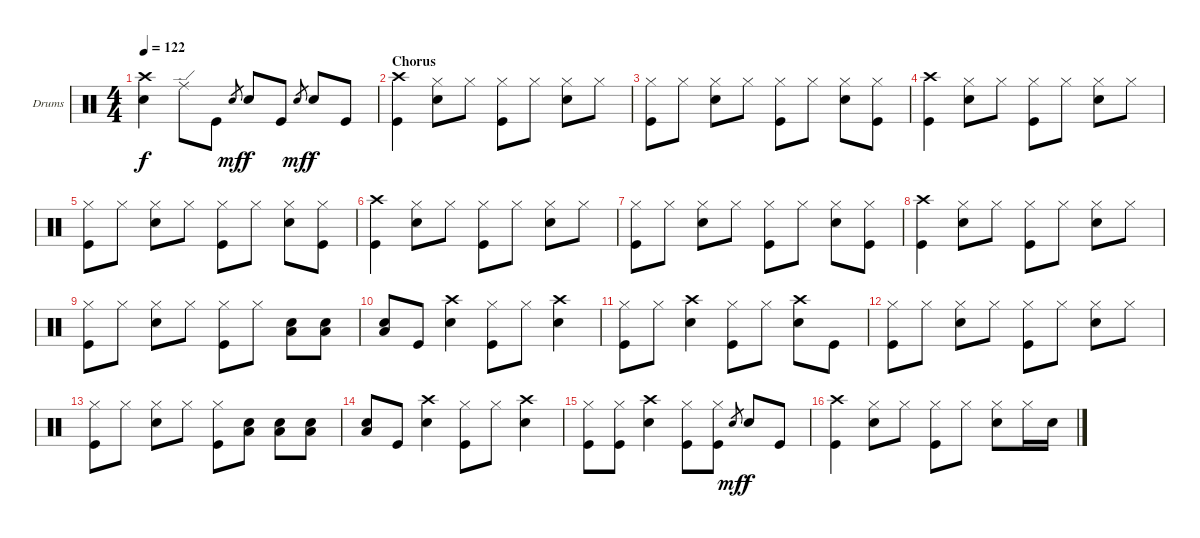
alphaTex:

\bracketExtendMode groupsimilarinstruments
\firstSystemTrackNameOrientation horizontal
\otherSystemsTrackNameOrientation horizontal
\track ("Drumkit" "Drums") {instrument percussion}
\staff {score}
\articulation defaults
\ts (4 4)
\tempo 122
\clef neutral
\ks c
("Snare (hit) 2" "Crash high (hit)").4{dy f} "Ride (edge)".8 "Kick (hit)".8 "Snare (hit) 2".8{gr dy mf} "Snare (hit) 2".8{dy f} "Kick (hit)".8 "Snare (hit) 2".8{gr dy mf} "Snare (hit) 2".8{dy f} "Kick (hit)".8 |
\section ("" "Chorus")
("Kick (hit)" "Crash high (hit)").4 ("Snare (hit) 2" "Hi-Hat (closed)").8 "Hi-Hat (closed)".8 ("Kick (hit)" "Hi-Hat (closed)").8 "Hi-Hat (closed)".8 ("Snare (hit) 2" "Hi-Hat (closed)").8 "Hi-Hat (closed)".8 |
("Kick (hit)" "Hi-Hat (closed)").8 "Hi-Hat (closed)".8 ("Snare (hit) 2" "Hi-Hat (closed)").8 "Hi-Hat (closed)".8 ("Kick (hit)" "Hi-Hat (closed)").8 "Hi-Hat (closed)".8 ("Snare (hit) 2" "Hi-Hat (closed)").8 ("Kick (hit)" "Hi-Hat (closed)").8 |
("Kick (hit)" "Crash high (hit)").4 ("Snare (hit) 2" "Hi-Hat (closed)").8 "Hi-Hat (closed)".8 ("Kick (hit)" "Hi-Hat (closed)").8 "Hi-Hat (closed)".8 ("Snare (hit) 2" "Hi-Hat (closed)").8 "Hi-Hat (closed)".8 |
("Kick (hit)" "Hi-Hat (closed)").8 "Hi-Hat (closed)".8 ("Snare (hit) 2" "Hi-Hat (closed)").8 "Hi-Hat (closed)".8 ("Kick (hit)" "Hi-Hat (closed)").8 "Hi-Hat (closed)".8 ("Snare (hit) 2" "Hi-Hat (closed)").8 ("Kick (hit)" "Hi-Hat (closed)").8 |
("Kick (hit)" "Crash high (hit)").4 ("Snare (hit) 2" "Hi-Hat (closed)").8 "Hi-Hat (closed)".8 ("Kick (hit)" "Hi-Hat (closed)").8 "Hi-Hat (closed)".8 ("Snare (hit) 2" "Hi-Hat (closed)").8 "Hi-Hat (closed)".8 |
("Kick (hit)" "Hi-Hat (closed)").8 "Hi-Hat (closed)".8 ("Snare (hit) 2" "Hi-Hat (closed)").8 "Hi-Hat (closed)".8 ("Kick (hit)" "Hi-Hat (closed)").8 "Hi-Hat (closed)".8 ("Snare (hit) 2" "Hi-Hat (closed)").8 ("Kick (hit)" "Hi-Hat (closed)").8 |
("Kick (hit)" "Crash high (hit)").4 ("Snare (hit) 2" "Hi-Hat (closed)").8 "Hi-Hat (closed)".8 ("Kick (hit)" "Hi-Hat (closed)").8 "Hi-Hat (closed)".8 ("Snare (hit) 2" "Hi-Hat (closed)").8 "Hi-Hat (closed)".8 |
("Kick (hit)" "Hi-Hat (closed)").8 "Hi-Hat (closed)".8 ("Snare (hit) 2" "Hi-Hat (closed)").8 "Hi-Hat (closed)".8 ("Kick (hit)" "Hi-Hat (closed)").8 "Hi-Hat (closed)".8 ("Snare (hit) 2" "Low Tom (hit)").8 ("Snare (hit) 2" "Low Tom (hit)").8 |
("Snare (hit) 2" "Low Tom (hit)").8 "Kick (hit)".8 ("Snare (hit) 2" "Crash high (hit)").4 ("Kick (hit)" "Hi-Hat (closed)").8 "Hi-Hat (closed)".8 ("Snare (hit) 2" "Crash high (hit)").4 |
("Kick (hit)" "Hi-Hat (closed)").8 "Hi-Hat (closed)".8 ("Snare (hit) 2" "Crash high (hit)").4 ("Kick (hit)" "Hi-Hat (closed)").8 "Hi-Hat (closed)".8 ("Snare (hit) 2" "Crash high (hit)").8 "Kick (hit)".8 |
("Kick (hit)" "Hi-Hat (closed)").8 "Hi-Hat (closed)".8 ("Snare (hit) 2" "Hi-Hat (closed)").8 "Hi-Hat (closed)".8 ("Kick (hit)" "Hi-Hat (closed)").8 "Hi-Hat (closed)".8 ("Snare (hit) 2" "Hi-Hat (closed)").8 "Hi-Hat (closed)".8 |
("Kick (hit)" "Hi-Hat (closed)").8 "Hi-Hat (closed)".8 ("Snare (hit) 2" "Hi-Hat (closed)").8 "Hi-Hat (closed)".8 ("Kick (hit)" "Hi-Hat (closed)").8 ("Snare (hit) 2" "Low Tom (hit)").8 ("Snare (hit) 2" "Low Tom (hit)").8 ("Snare (hit) 2" "Low Tom (hit)").8 |
("Snare (hit) 2" "Low Tom (hit)").8 "Kick (hit)".8 ("Snare (hit) 2" "Crash high (hit)").4 ("Kick (hit)" "Hi-Hat (closed)").8 "Hi-Hat (closed)".8 ("Snare (hit) 2" "Crash high (hit)").4 |
("Kick (hit)" "Hi-Hat (closed)").8 ("Kick (hit)" "Hi-Hat (closed)").8 ("Snare (hit) 2" "Crash high (hit)").4 ("Kick (hit)" "Hi-Hat (closed)").8 ("Kick (hit)" "Hi-Hat (closed)").8 "Snare (hit) 2".8{gr dy mf} "Snare (hit) 2".8{dy f} "Kick (hit)".8 |
("Kick (hit)" "Crash high (hit)").4 ("Snare (hit) 2" "Hi-Hat (closed)").8 "Hi-Hat (closed)".8 ("Kick (hit)" "Hi-Hat (closed)").8 "Hi-Hat (closed)".8 ("Snare (hit) 2" "Hi-Hat (closed)").8 "Hi-Hat (closed)".16 "Snare (hit) 2".16
